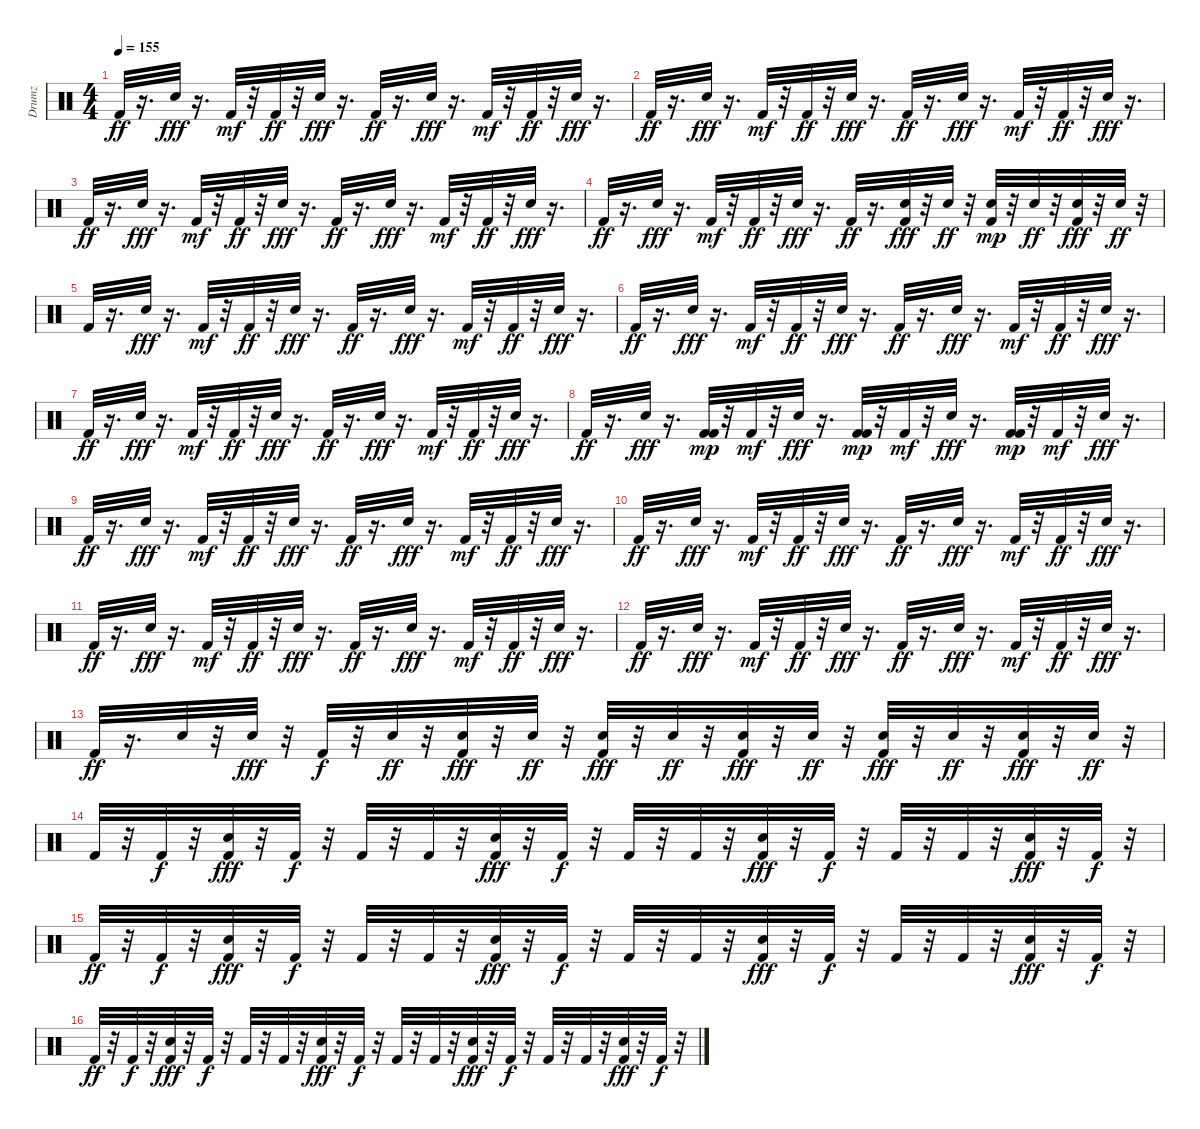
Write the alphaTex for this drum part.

\track ("Drumz" "Drumz") {instrument percussion}
\staff {score}
\articulation defaults
\ts (4 4)
\tempo 155
\clef neutral
\ks c "Kick (hit) 2".32{dy ff}
r.16{d} "Snare (hit) 2".32{dy fff} r.16{d} "Kick (hit) 2".32{dy mf} r.32 "Kick (hit) 2".32{dy ff} r.32 "Snare (hit) 2".32{dy fff} r.16{d} "Kick (hit) 2".32{dy ff} r.16{d} "Snare (hit) 2".32{dy fff} r.16{d} "Kick (hit) 2".32{dy mf} r.32 "Kick (hit) 2".32{dy ff} r.32 "Snare (hit) 2".32{dy fff} r.16{d} |
"Kick (hit) 2".32{dy ff} r.16{d} "Snare (hit) 2".32{dy fff} r.16{d} "Kick (hit) 2".32{dy mf} r.32 "Kick (hit) 2".32{dy ff} r.32 "Snare (hit) 2".32{dy fff} r.16{d} "Kick (hit) 2".32{dy ff} r.16{d} "Snare (hit) 2".32{dy fff} r.16{d} "Kick (hit) 2".32{dy mf} r.32 "Kick (hit) 2".32{dy ff} r.32 "Snare (hit) 2".32{dy fff} r.16{d} |
"Kick (hit) 2".32{dy ff} r.16{d} "Snare (hit) 2".32{dy fff} r.16{d} "Kick (hit) 2".32{dy mf} r.32 "Kick (hit) 2".32{dy ff} r.32 "Snare (hit) 2".32{dy fff} r.16{d} "Kick (hit) 2".32{dy ff} r.16{d} "Snare (hit) 2".32{dy fff} r.16{d} "Kick (hit) 2".32{dy mf} r.32 "Kick (hit) 2".32{dy ff} r.32 "Snare (hit) 2".32{dy fff} r.16{d} |
"Kick (hit) 2".32{dy ff} r.16{d} "Snare (hit) 2".32{dy fff} r.16{d} "Kick (hit) 2".32{dy mf} r.32 "Kick (hit) 2".32{dy ff} r.32 "Snare (hit) 2".32{dy fff} r.16{d} "Kick (hit) 2".32{dy ff} r.16{d} ("Kick (hit) 2" "Snare (hit) 2").32{dy fff} r.32 "Snare (hit) 2".32{dy ff} r.32 ("Kick (hit) 2" "Snare (hit) 2").32{dy mp} r.32 "Snare (hit) 2".32{dy ff} r.32 ("Kick (hit) 2" "Snare (hit) 2").32{dy fff} r.32 "Snare (hit) 2".32{dy ff} r.32 |
"Kick (hit) 2".32 r.16{d} "Snare (hit) 2".32{dy fff} r.16{d} "Kick (hit) 2".32{dy mf} r.32 "Kick (hit) 2".32{dy ff} r.32 "Snare (hit) 2".32{dy fff} r.16{d} "Kick (hit) 2".32{dy ff} r.16{d} "Snare (hit) 2".32{dy fff} r.16{d} "Kick (hit) 2".32{dy mf} r.32 "Kick (hit) 2".32{dy ff} r.32 "Snare (hit) 2".32{dy fff} r.16{d} |
"Kick (hit) 2".32{dy ff} r.16{d} "Snare (hit) 2".32{dy fff} r.16{d} "Kick (hit) 2".32{dy mf} r.32 "Kick (hit) 2".32{dy ff} r.32 "Snare (hit) 2".32{dy fff} r.16{d} "Kick (hit) 2".32{dy ff} r.16{d} "Snare (hit) 2".32{dy fff} r.16{d} "Kick (hit) 2".32{dy mf} r.32 "Kick (hit) 2".32{dy ff} r.32 "Snare (hit) 2".32{dy fff} r.16{d} |
"Kick (hit) 2".32{dy ff} r.16{d} "Snare (hit) 2".32{dy fff} r.16{d} "Kick (hit) 2".32{dy mf} r.32 "Kick (hit) 2".32{dy ff} r.32 "Snare (hit) 2".32{dy fff} r.16{d} "Kick (hit) 2".32{dy ff} r.16{d} "Snare (hit) 2".32{dy fff} r.16{d} "Kick (hit) 2".32{dy mf} r.32 "Kick (hit) 2".32{dy ff} r.32 "Snare (hit) 2".32{dy fff} r.16{d} |
"Kick (hit) 2".32{dy ff} r.16{d} "Snare (hit) 2".32{dy fff} r.16{d} ("Kick (hit) 2" "Kick (hit) 2").32{dy mp} r.32 "Kick (hit) 2".32{dy mf} r.32 "Snare (hit) 2".32{dy fff} r.16{d} ("Kick (hit) 2" "Kick (hit) 2").32{dy mp} r.32 "Kick (hit) 2".32{dy mf} r.32 "Snare (hit) 2".32{dy fff} r.16{d} ("Kick (hit) 2" "Kick (hit) 2").32{dy mp} r.32 "Kick (hit) 2".32{dy mf} r.32 "Snare (hit) 2".32{dy fff} r.16{d} |
"Kick (hit) 2".32{dy ff} r.16{d} "Snare (hit) 2".32{dy fff} r.16{d} "Kick (hit) 2".32{dy mf} r.32 "Kick (hit) 2".32{dy ff} r.32 "Snare (hit) 2".32{dy fff} r.16{d} "Kick (hit) 2".32{dy ff} r.16{d} "Snare (hit) 2".32{dy fff} r.16{d} "Kick (hit) 2".32{dy mf} r.32 "Kick (hit) 2".32{dy ff} r.32 "Snare (hit) 2".32{dy fff} r.16{d} |
"Kick (hit) 2".32{dy ff} r.16{d} "Snare (hit) 2".32{dy fff} r.16{d} "Kick (hit) 2".32{dy mf} r.32 "Kick (hit) 2".32{dy ff} r.32 "Snare (hit) 2".32{dy fff} r.16{d} "Kick (hit) 2".32{dy ff} r.16{d} "Snare (hit) 2".32{dy fff} r.16{d} "Kick (hit) 2".32{dy mf} r.32 "Kick (hit) 2".32{dy ff} r.32 "Snare (hit) 2".32{dy fff} r.16{d} |
"Kick (hit) 2".32{dy ff} r.16{d} "Snare (hit) 2".32{dy fff} r.16{d} "Kick (hit) 2".32{dy mf} r.32 "Kick (hit) 2".32{dy ff} r.32 "Snare (hit) 2".32{dy fff} r.16{d} "Kick (hit) 2".32{dy ff} r.16{d} "Snare (hit) 2".32{dy fff} r.16{d} "Kick (hit) 2".32{dy mf} r.32 "Kick (hit) 2".32{dy ff} r.32 "Snare (hit) 2".32{dy fff} r.16{d} |
"Kick (hit) 2".32{dy ff} r.16{d} "Snare (hit) 2".32{dy fff} r.16{d} "Kick (hit) 2".32{dy mf} r.32 "Kick (hit) 2".32{dy ff} r.32 "Snare (hit) 2".32{dy fff} r.16{d} "Kick (hit) 2".32{dy ff} r.16{d} "Snare (hit) 2".32{dy fff} r.16{d} "Kick (hit) 2".32{dy mf} r.32 "Kick (hit) 2".32{dy ff} r.32 "Snare (hit) 2".32{dy fff} r.16{d} |
"Kick (hit) 2".32{dy ff} r.16{d} "Snare (hit) 2".32 r.32 "Snare (hit) 2".32{dy fff} r.32 "Kick (hit) 2".32{dy f} r.32 "Snare (hit) 2".32{dy ff} r.32 ("Kick (hit) 2" "Snare (hit) 2").32{dy fff} r.32 "Snare (hit) 2".32{dy ff} r.32 ("Kick (hit) 2" "Snare (hit) 2").32{dy fff} r.32 "Snare (hit) 2".32{dy ff} r.32 ("Kick (hit) 2" "Snare (hit) 2").32{dy fff} r.32 "Snare (hit) 2".32{dy ff} r.32 ("Kick (hit) 2" "Snare (hit) 2").32{dy fff} r.32 "Snare (hit) 2".32{dy ff} r.32 ("Kick (hit) 2" "Snare (hit) 2").32{dy fff} r.32 "Snare (hit) 2".32{dy ff} r.32 |
"Kick (hit) 2".32 r.32 "Kick (hit) 2".32{dy f} r.32 ("Kick (hit) 2" "Snare (hit) 2").32{dy fff} r.32 "Kick (hit) 2".32{dy f} r.32 "Kick (hit) 2".32 r.32 "Kick (hit) 2".32 r.32 ("Kick (hit) 2" "Snare (hit) 2").32{dy fff} r.32 "Kick (hit) 2".32{dy f} r.32 "Kick (hit) 2".32 r.32 "Kick (hit) 2".32 r.32 ("Kick (hit) 2" "Snare (hit) 2").32{dy fff} r.32 "Kick (hit) 2".32{dy f} r.32 "Kick (hit) 2".32 r.32 "Kick (hit) 2".32 r.32 ("Kick (hit) 2" "Snare (hit) 2").32{dy fff} r.32 "Kick (hit) 2".32{dy f} r.32 |
"Kick (hit) 2".32{dy ff} r.32 "Kick (hit) 2".32{dy f} r.32 ("Kick (hit) 2" "Snare (hit) 2").32{dy fff} r.32 "Kick (hit) 2".32{dy f} r.32 "Kick (hit) 2".32 r.32 "Kick (hit) 2".32 r.32 ("Kick (hit) 2" "Snare (hit) 2").32{dy fff} r.32 "Kick (hit) 2".32{dy f} r.32 "Kick (hit) 2".32 r.32 "Kick (hit) 2".32 r.32 ("Kick (hit) 2" "Snare (hit) 2").32{dy fff} r.32 "Kick (hit) 2".32{dy f} r.32 "Kick (hit) 2".32 r.32 "Kick (hit) 2".32 r.32 ("Kick (hit) 2" "Snare (hit) 2").32{dy fff} r.32 "Kick (hit) 2".32{dy f} r.32 |
"Kick (hit) 2".32{dy ff} r.32 "Kick (hit) 2".32{dy f} r.32 ("Kick (hit) 2" "Snare (hit) 2").32{dy fff} r.32 "Kick (hit) 2".32{dy f} r.32 "Kick (hit) 2".32 r.32 "Kick (hit) 2".32 r.32 ("Kick (hit) 2" "Snare (hit) 2").32{dy fff} r.32 "Kick (hit) 2".32{dy f} r.32 "Kick (hit) 2".32 r.32 "Kick (hit) 2".32 r.32 ("Kick (hit) 2" "Snare (hit) 2").32{dy fff} r.32 "Kick (hit) 2".32{dy f} r.32 "Kick (hit) 2".32 r.32 "Kick (hit) 2".32 r.32 ("Kick (hit) 2" "Snare (hit) 2").32{dy fff} r.32 "Kick (hit) 2".32{dy f} r.32
